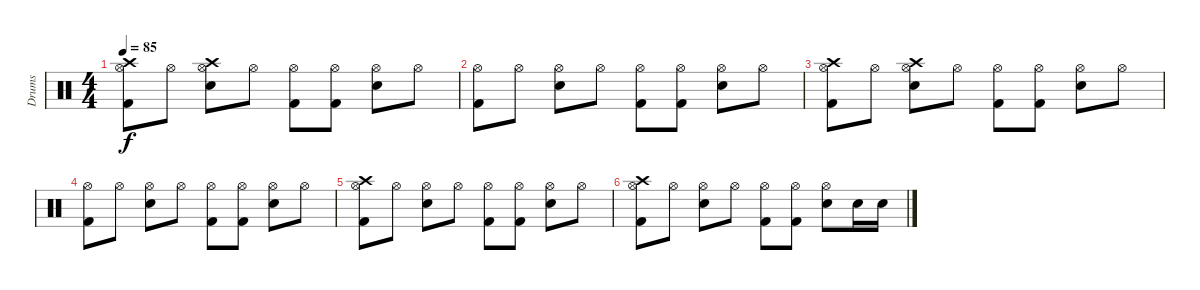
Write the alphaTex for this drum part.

\track ("Drums" "Drums") {instrument percussion}
\staff {score}
\articulation defaults
\ts (4 4)
\tempo 85
\clef neutral
\ks c
("Hi-Hat (open)" "Crash high (hit)" "Kick (hit) 2").8{dy f} "Hi-Hat (open)".8 ("Hi-Hat (open)" "Crash high (hit)" "Snare (hit) 2").8 "Hi-Hat (open)".8 ("Hi-Hat (open)" "Kick (hit) 2").8 ("Hi-Hat (open)" "Kick (hit) 2").8 ("Hi-Hat (open)" "Snare (hit) 2").8 "Hi-Hat (open)".8 |
("Hi-Hat (open)" "Kick (hit) 2").8 "Hi-Hat (open)".8 ("Hi-Hat (open)" "Snare (hit) 2").8 "Hi-Hat (open)".8 ("Hi-Hat (open)" "Kick (hit) 2").8 ("Hi-Hat (open)" "Kick (hit) 2").8 ("Hi-Hat (open)" "Snare (hit) 2").8 "Hi-Hat (open)".8 |
("Hi-Hat (open)" "Crash high (hit)" "Kick (hit) 2").8 "Hi-Hat (open)".8 ("Hi-Hat (open)" "Crash high (hit)" "Snare (hit) 2").8 "Hi-Hat (open)".8 ("Hi-Hat (open)" "Kick (hit) 2").8 ("Hi-Hat (open)" "Kick (hit) 2").8 ("Hi-Hat (open)" "Snare (hit) 2").8 "Hi-Hat (open)".8 |
("Hi-Hat (open)" "Kick (hit) 2").8 "Hi-Hat (open)".8 ("Hi-Hat (open)" "Snare (hit) 2").8 "Hi-Hat (open)".8 ("Hi-Hat (open)" "Kick (hit) 2").8 ("Hi-Hat (open)" "Kick (hit) 2").8 ("Hi-Hat (open)" "Snare (hit) 2").8 "Hi-Hat (open)".8 |
("Hi-Hat (open)" "Crash high (hit)" "Kick (hit) 2").8 "Hi-Hat (open)".8 ("Hi-Hat (open)" "Snare (hit) 2").8 "Hi-Hat (open)".8 ("Hi-Hat (open)" "Kick (hit) 2").8 ("Hi-Hat (open)" "Kick (hit) 2").8 ("Hi-Hat (open)" "Snare (hit) 2").8 "Hi-Hat (open)".8 |
("Hi-Hat (open)" "Crash high (hit)" "Kick (hit) 2").8 "Hi-Hat (open)".8 ("Hi-Hat (open)" "Snare (hit) 2").8 "Hi-Hat (open)".8 ("Hi-Hat (open)" "Kick (hit) 2").8 ("Hi-Hat (open)" "Kick (hit) 2").8 ("Hi-Hat (open)" "Snare (hit) 2").8 "Snare (hit) 2".16 "Snare (hit) 2".16
